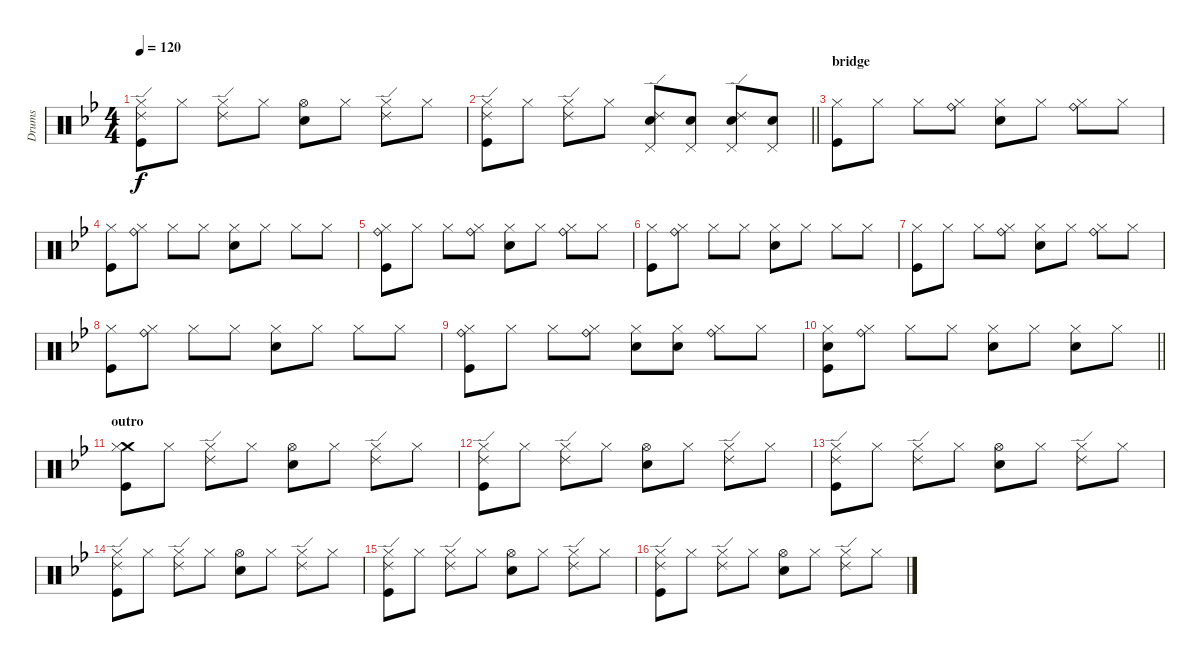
\track ("Drums" "Drums") {instrument percussion}
\staff {score}
\articulation defaults
\ts (4 4)
\tempo 120
\clef neutral
\ks gminor
("Hi-Hat (closed)" "Ride (edge) 2" "Kick (hit)").8{dy f} "Hi-Hat (closed)".8 ("Hi-Hat (closed)" "Ride (edge) 2").8 "Hi-Hat (closed)".8 ("Hi-Hat (open)" "Electric Snare (hit)").8 "Hi-Hat (closed)".8 ("Hi-Hat (closed)" "Ride (edge) 2").8 "Hi-Hat (closed)".8 |
\barLineRight lightlight
("Hi-Hat (closed)" "Ride (edge) 2" "Kick (hit)").8 "Hi-Hat (closed)".8 ("Hi-Hat (closed)" "Ride (edge) 2").8 "Hi-Hat (closed)".8 ("Pedal Hi-Hat (hit)" "Ride (edge) 2" "Electric Snare (hit)").8 ("Pedal Hi-Hat (hit)" "Electric Snare (hit)").8 ("Pedal Hi-Hat (hit)" "Ride (edge) 2" "Electric Snare (hit)").8 ("Pedal Hi-Hat (hit)" "Electric Snare (hit)").8 |
\section ("" "bridge")
("Hi-Hat (closed)" "Kick (hit)").8 "Hi-Hat (closed)".8 "Hi-Hat (closed)".8 ("Ride (bell)" "Hi-Hat (closed)").8 ("Hi-Hat (closed)" "Electric Snare (hit)").8 "Hi-Hat (closed)".8 ("Ride (bell)" "Hi-Hat (closed)").8 "Hi-Hat (closed)".8 |
("Hi-Hat (closed)" "Kick (hit)").8 ("Ride (bell)" "Hi-Hat (closed)").8 "Hi-Hat (closed)".8 "Hi-Hat (closed)".8 ("Hi-Hat (closed)" "Electric Snare (hit)").8 "Hi-Hat (closed)".8 "Hi-Hat (closed)".8 "Hi-Hat (closed)".8 |
("Ride (bell)" "Hi-Hat (closed)" "Kick (hit)").8 "Hi-Hat (closed)".8 "Hi-Hat (closed)".8 ("Ride (bell)" "Hi-Hat (closed)").8 ("Hi-Hat (closed)" "Electric Snare (hit)").8 "Hi-Hat (closed)".8 ("Ride (bell)" "Hi-Hat (closed)").8 "Hi-Hat (closed)".8 |
("Hi-Hat (closed)" "Kick (hit)").8 ("Ride (bell)" "Hi-Hat (closed)").8 "Hi-Hat (closed)".8 "Hi-Hat (closed)".8 ("Hi-Hat (closed)" "Electric Snare (hit)").8 "Hi-Hat (closed)".8 "Hi-Hat (closed)".8 "Hi-Hat (closed)".8 |
("Hi-Hat (closed)" "Kick (hit)").8 "Hi-Hat (closed)".8 "Hi-Hat (closed)".8 ("Ride (bell)" "Hi-Hat (closed)").8 ("Hi-Hat (closed)" "Electric Snare (hit)").8 "Hi-Hat (closed)".8 ("Ride (bell)" "Hi-Hat (closed)").8 "Hi-Hat (closed)".8 |
("Hi-Hat (closed)" "Kick (hit)").8 ("Ride (bell)" "Hi-Hat (closed)").8 "Hi-Hat (closed)".8 "Hi-Hat (closed)".8 ("Hi-Hat (closed)" "Electric Snare (hit)").8 "Hi-Hat (closed)".8 "Hi-Hat (closed)".8 "Hi-Hat (closed)".8 |
("Ride (bell)" "Hi-Hat (closed)" "Kick (hit)").8 "Hi-Hat (closed)".8 "Hi-Hat (closed)".8 ("Ride (bell)" "Hi-Hat (closed)").8 ("Hi-Hat (closed)" "Electric Snare (hit)").8 ("Hi-Hat (closed)" "Electric Snare (hit)").8 ("Ride (bell)" "Hi-Hat (closed)").8 "Hi-Hat (closed)".8 |
\barLineRight lightlight
("Hi-Hat (closed)" "Electric Snare (hit)" "Kick (hit)").8 ("Ride (bell)" "Hi-Hat (closed)").8 "Hi-Hat (closed)".8 "Hi-Hat (closed)".8 ("Hi-Hat (closed)" "Electric Snare (hit)").8 "Hi-Hat (closed)".8 ("Hi-Hat (closed)" "Electric Snare (hit)").8 "Hi-Hat (closed)".8 |
\section ("" "outro")
("Crash medium (hit)" "Hi-Hat (closed)" "Kick (hit)").8 "Hi-Hat (closed)".8 ("Hi-Hat (closed)" "Ride (edge) 2").8 "Hi-Hat (closed)".8 ("Hi-Hat (open)" "Electric Snare (hit)").8 "Hi-Hat (closed)".8 ("Hi-Hat (closed)" "Ride (edge) 2").8 "Hi-Hat (closed)".8 |
("Hi-Hat (closed)" "Ride (edge) 2" "Kick (hit)").8 "Hi-Hat (closed)".8 ("Hi-Hat (closed)" "Ride (edge) 2").8 "Hi-Hat (closed)".8 ("Hi-Hat (open)" "Electric Snare (hit)").8 "Hi-Hat (closed)".8 ("Hi-Hat (closed)" "Ride (edge) 2").8 "Hi-Hat (closed)".8 |
("Hi-Hat (closed)" "Ride (edge) 2" "Kick (hit)").8 "Hi-Hat (closed)".8 ("Hi-Hat (closed)" "Ride (edge) 2").8 "Hi-Hat (closed)".8 ("Hi-Hat (open)" "Electric Snare (hit)").8 "Hi-Hat (closed)".8 ("Hi-Hat (closed)" "Ride (edge) 2").8 "Hi-Hat (closed)".8 |
("Hi-Hat (closed)" "Ride (edge) 2" "Kick (hit)").8 "Hi-Hat (closed)".8 ("Hi-Hat (closed)" "Ride (edge) 2").8 "Hi-Hat (closed)".8 ("Hi-Hat (open)" "Electric Snare (hit)").8 "Hi-Hat (closed)".8 ("Hi-Hat (closed)" "Ride (edge) 2").8 "Hi-Hat (closed)".8 |
("Hi-Hat (closed)" "Ride (edge) 2" "Kick (hit)").8 "Hi-Hat (closed)".8 ("Hi-Hat (closed)" "Ride (edge) 2").8 "Hi-Hat (closed)".8 ("Hi-Hat (open)" "Electric Snare (hit)").8 "Hi-Hat (closed)".8 ("Hi-Hat (closed)" "Ride (edge) 2").8 "Hi-Hat (closed)".8 |
("Hi-Hat (closed)" "Ride (edge) 2" "Kick (hit)").8 "Hi-Hat (closed)".8 ("Hi-Hat (closed)" "Ride (edge) 2").8 "Hi-Hat (closed)".8 ("Hi-Hat (open)" "Electric Snare (hit)").8 "Hi-Hat (closed)".8 ("Hi-Hat (closed)" "Ride (edge) 2").8 "Hi-Hat (closed)".8
